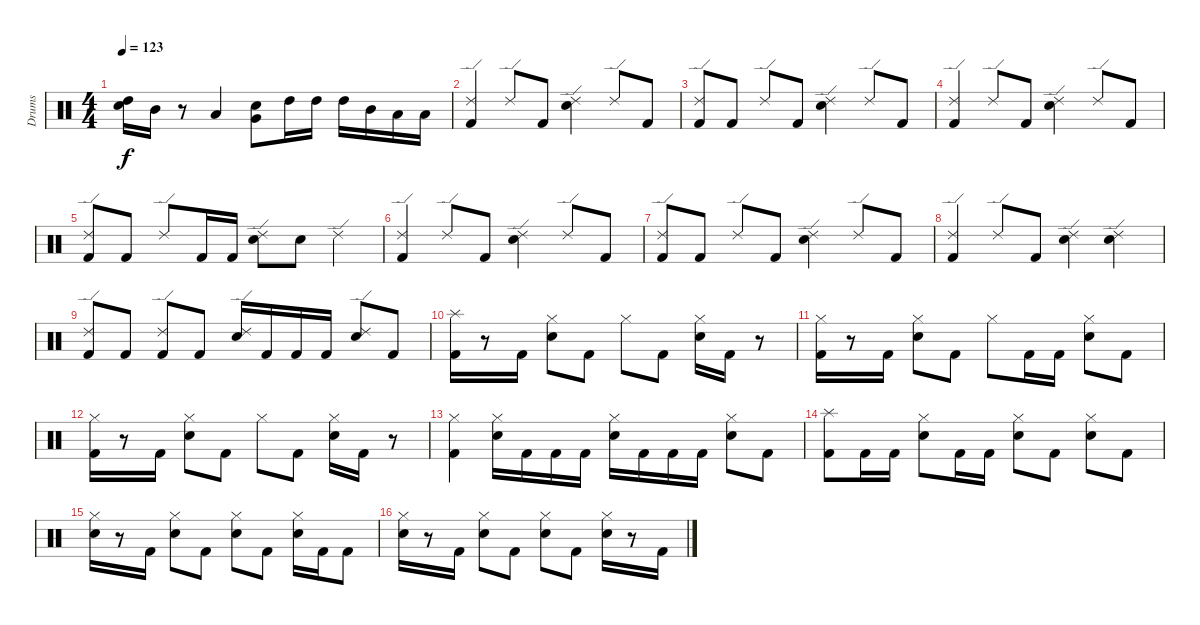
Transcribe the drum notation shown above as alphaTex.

\track ("Drums" "Drums") {instrument percussion}
\staff {score}
\articulation defaults
\ts (4 4)
\tempo 123
\clef neutral
\ks c
("Snare (hit) 2" "High Tom (hit)").16{dy f} "Mid Tom (hit)".16 r.8 "Low Tom (hit)".4 ("Snare (hit) 2" "Very Low Tom (hit)").8 "High Tom (hit)".16 "High Tom (hit)".16 "High Tom (hit)".16 "Mid Tom (hit)".16 "Low Tom (hit)".16 "Low Floor Tom (hit)".16 |
("Kick (hit) 2" "Ride (edge) 2").4 "Ride (edge) 2".8 "Kick (hit) 2".8 ("Snare (hit) 2" "Ride (edge) 2").4 "Ride (edge) 2".8 "Kick (hit) 2".8 |
("Kick (hit) 2" "Ride (edge) 2").8 "Kick (hit) 2".8 "Ride (edge) 2".8 "Kick (hit) 2".8 ("Snare (hit) 2" "Ride (edge) 2").4 "Ride (edge) 2".8 "Kick (hit) 2".8 |
("Kick (hit) 2" "Ride (edge) 2").4 "Ride (edge) 2".8 "Kick (hit) 2".8 ("Snare (hit) 2" "Ride (edge) 2").4 "Ride (edge) 2".8 "Kick (hit) 2".8 |
("Kick (hit) 2" "Ride (edge) 2").8 "Kick (hit) 2".8 "Ride (edge) 2".8 "Kick (hit) 2".16 "Kick (hit) 2".16 ("Snare (hit) 2" "Ride (edge) 2").8 "Snare (hit) 2".8 "Ride (edge) 2".4 |
("Kick (hit) 2" "Ride (edge) 2").4 "Ride (edge) 2".8 "Kick (hit) 2".8 ("Snare (hit) 2" "Ride (edge) 2").4 "Ride (edge) 2".8 "Kick (hit) 2".8 |
("Kick (hit) 2" "Ride (edge) 2").8 "Kick (hit) 2".8 "Ride (edge) 2".8 "Kick (hit) 2".8 ("Snare (hit) 2" "Ride (edge) 2").4 "Ride (edge) 2".8 "Kick (hit) 2".8 |
("Kick (hit) 2" "Ride (edge) 2").4 "Ride (edge) 2".8 "Kick (hit) 2".8 ("Snare (hit) 2" "Ride (edge) 2").4 ("Snare (hit) 2" "Ride (edge) 2").4 |
("Kick (hit) 2" "Ride (edge) 2").8 "Kick (hit) 2".8 ("Kick (hit) 2" "Ride (edge) 2").8 "Kick (hit) 2".8 ("Snare (hit) 2" "Ride (edge) 2").16 "Kick (hit) 2".16 "Kick (hit) 2".16 "Kick (hit) 2".16 ("Snare (hit) 2" "Ride (edge) 2").8 "Kick (hit) 2".8 |
("Kick (hit) 2" "Splash (hit)").16 r.8 "Kick (hit) 2".16 ("Snare (hit) 2" "Hi-Hat (closed)").8 "Kick (hit) 2".8 "Hi-Hat (closed)".8 "Kick (hit) 2".8 ("Snare (hit) 2" "Hi-Hat (closed)").16 "Kick (hit) 2".16 r.8 |
("Kick (hit) 2" "Hi-Hat (closed)").16 r.8 "Kick (hit) 2".16 ("Snare (hit) 2" "Hi-Hat (closed)").8 "Kick (hit) 2".8 "Hi-Hat (closed)".8 "Kick (hit) 2".16 "Kick (hit) 2".16 ("Snare (hit) 2" "Hi-Hat (closed)").8 "Kick (hit) 2".8 |
("Kick (hit) 2" "Hi-Hat (closed)").16 r.8 "Kick (hit) 2".16 ("Snare (hit) 2" "Hi-Hat (closed)").8 "Kick (hit) 2".8 "Hi-Hat (closed)".8 "Kick (hit) 2".8 ("Snare (hit) 2" "Hi-Hat (closed)").16 "Kick (hit) 2".16 r.8 |
("Kick (hit) 2" "Hi-Hat (closed)").4 ("Snare (hit) 2" "Hi-Hat (closed)").16 "Kick (hit) 2".16 "Kick (hit) 2".16 "Kick (hit) 2".16 ("Snare (hit) 2" "Hi-Hat (closed)").16 "Kick (hit) 2".16 "Kick (hit) 2".16 "Kick (hit) 2".16 ("Snare (hit) 2" "Hi-Hat (closed)").8 "Kick (hit) 2".8 |
("Kick (hit) 2" "Splash (hit)").8 "Kick (hit) 2".16 "Kick (hit) 2".16 ("Snare (hit) 2" "Hi-Hat (closed)").8 "Kick (hit) 2".16 "Kick (hit) 2".16 ("Snare (hit) 2" "Hi-Hat (closed)").8 "Kick (hit) 2".8 ("Snare (hit) 2" "Hi-Hat (closed)").8 "Kick (hit) 2".8 |
("Snare (hit) 2" "Hi-Hat (closed)").16 r.8 "Kick (hit) 2".16 ("Snare (hit) 2" "Hi-Hat (closed)").8 "Kick (hit) 2".8 ("Snare (hit) 2" "Hi-Hat (closed)").8 "Kick (hit) 2".8 ("Snare (hit) 2" "Hi-Hat (closed)").16 "Kick (hit) 2".16 "Kick (hit) 2".8 |
("Snare (hit) 2" "Hi-Hat (closed)").16 r.8 "Kick (hit) 2".16 ("Snare (hit) 2" "Hi-Hat (closed)").8 "Kick (hit) 2".8 ("Snare (hit) 2" "Hi-Hat (closed)").8 "Kick (hit) 2".8 ("Snare (hit) 2" "Hi-Hat (closed)").16 r.8 "Kick (hit) 2".16
